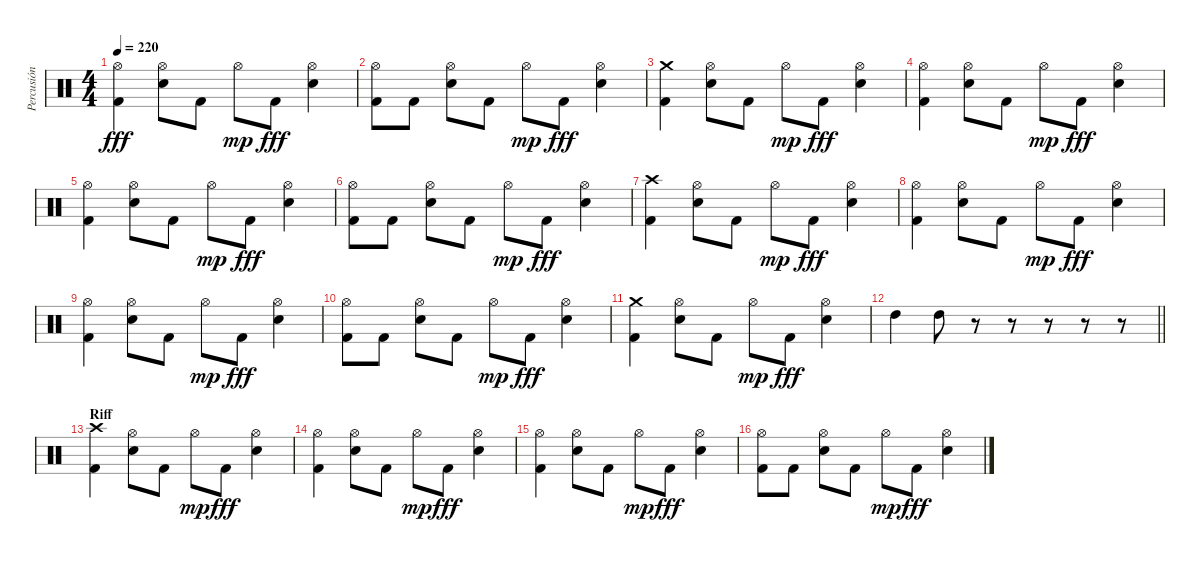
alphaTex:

\track ("Percusión" "Percusión") {instrument percussion}
\staff {score}
\articulation defaults
\ts (4 4)
\tempo 220
\clef neutral
\ks c
("Hi-Hat (open)" "Kick (hit) 2").4{dy fff} ("Hi-Hat (open)" "Snare (hit) 2").8 "Kick (hit) 2".8 "Hi-Hat (open)".8{dy mp} "Kick (hit) 2".8{dy fff} ("Hi-Hat (open)" "Snare (hit) 2").4 |
("Hi-Hat (open)" "Kick (hit) 2").8 "Kick (hit) 2".8 ("Hi-Hat (open)" "Snare (hit) 2").8 "Kick (hit) 2".8 "Hi-Hat (open)".8{dy mp} "Kick (hit) 2".8{dy fff} ("Hi-Hat (open)" "Snare (hit) 2").4 |
("Crash medium (hit)" "Kick (hit) 2").4 ("Hi-Hat (open)" "Snare (hit) 2").8 "Kick (hit) 2".8 "Hi-Hat (open)".8{dy mp} "Kick (hit) 2".8{dy fff} ("Hi-Hat (open)" "Snare (hit) 2").4 |
("Hi-Hat (open)" "Kick (hit) 2").4 ("Hi-Hat (open)" "Snare (hit) 2").8 "Kick (hit) 2".8 "Hi-Hat (open)".8{dy mp} "Kick (hit) 2".8{dy fff} ("Hi-Hat (open)" "Snare (hit) 2").4 |
("Hi-Hat (open)" "Kick (hit) 2").4 ("Hi-Hat (open)" "Snare (hit) 2").8 "Kick (hit) 2".8 "Hi-Hat (open)".8{dy mp} "Kick (hit) 2".8{dy fff} ("Hi-Hat (open)" "Snare (hit) 2").4 |
("Hi-Hat (open)" "Kick (hit) 2").8 "Kick (hit) 2".8 ("Hi-Hat (open)" "Snare (hit) 2").8 "Kick (hit) 2".8 "Hi-Hat (open)".8{dy mp} "Kick (hit) 2".8{dy fff} ("Hi-Hat (open)" "Snare (hit) 2").4 |
("Crash high (hit)" "Kick (hit) 2").4 ("Hi-Hat (open)" "Snare (hit) 2").8 "Kick (hit) 2".8 "Hi-Hat (open)".8{dy mp} "Kick (hit) 2".8{dy fff} ("Hi-Hat (open)" "Snare (hit) 2").4 |
("Hi-Hat (open)" "Kick (hit) 2").4 ("Hi-Hat (open)" "Snare (hit) 2").8 "Kick (hit) 2".8 "Hi-Hat (open)".8{dy mp} "Kick (hit) 2".8{dy fff} ("Hi-Hat (open)" "Snare (hit) 2").4 |
("Hi-Hat (open)" "Kick (hit) 2").4 ("Hi-Hat (open)" "Snare (hit) 2").8 "Kick (hit) 2".8 "Hi-Hat (open)".8{dy mp} "Kick (hit) 2".8{dy fff} ("Hi-Hat (open)" "Snare (hit) 2").4 |
("Hi-Hat (open)" "Kick (hit) 2").8 "Kick (hit) 2".8 ("Hi-Hat (open)" "Snare (hit) 2").8 "Kick (hit) 2".8 "Hi-Hat (open)".8{dy mp} "Kick (hit) 2".8{dy fff} ("Hi-Hat (open)" "Snare (hit) 2").4 |
("Crash medium (hit)" "Kick (hit) 2").4 ("Hi-Hat (open)" "Snare (hit) 2").8 "Kick (hit) 2".8 "Hi-Hat (open)".8{dy mp} "Kick (hit) 2".8{dy fff} ("Hi-Hat (open)" "Snare (hit) 2").4 |
\barLineRight lightlight "High Tom (hit)".4 "High Tom (hit)".8
r.8 r.8 r.8 r.8 r.8 |
\section ("" "Riff")
("Crash high (hit)" "Kick (hit) 2").4 ("Hi-Hat (open)" "Snare (hit) 2").8 "Kick (hit) 2".8 "Hi-Hat (open)".8{dy mp} "Kick (hit) 2".8{dy fff} ("Hi-Hat (open)" "Snare (hit) 2").4 |
("Hi-Hat (open)" "Kick (hit) 2").4 ("Hi-Hat (open)" "Snare (hit) 2").8 "Kick (hit) 2".8 "Hi-Hat (open)".8{dy mp} "Kick (hit) 2".8{dy fff} ("Hi-Hat (open)" "Snare (hit) 2").4 |
("Hi-Hat (open)" "Kick (hit) 2").4 ("Hi-Hat (open)" "Snare (hit) 2").8 "Kick (hit) 2".8 "Hi-Hat (open)".8{dy mp} "Kick (hit) 2".8{dy fff} ("Hi-Hat (open)" "Snare (hit) 2").4 |
("Hi-Hat (open)" "Kick (hit) 2").8 "Kick (hit) 2".8 ("Hi-Hat (open)" "Snare (hit) 2").8 "Kick (hit) 2".8 "Hi-Hat (open)".8{dy mp} "Kick (hit) 2".8{dy fff} ("Hi-Hat (open)" "Snare (hit) 2").4
